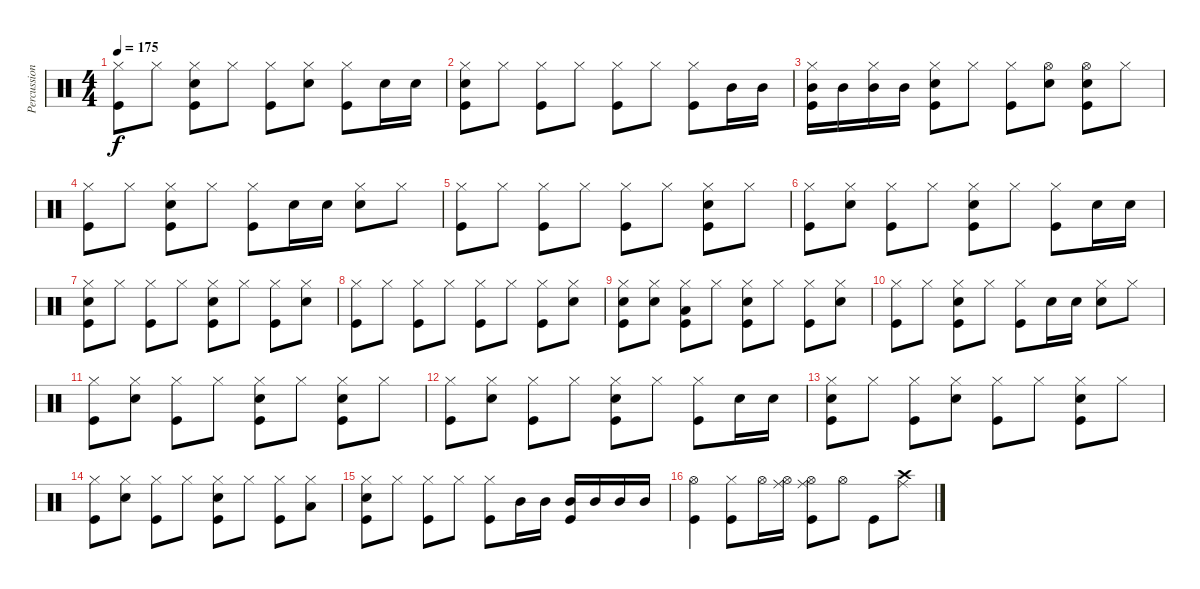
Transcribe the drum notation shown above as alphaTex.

\track ("Percussions" "Percussion") {instrument percussion}
\staff {score}
\articulation defaults
\ts (4 4)
\tempo 175
\clef neutral
\ks c
("Hi-Hat (closed)" "Kick (hit)").8{dy f} "Hi-Hat (closed)".8 ("Hi-Hat (closed)" "Snare (hit) 2" "Kick (hit)").8 "Hi-Hat (closed)".8 ("Hi-Hat (closed)" "Kick (hit)").8 ("Hi-Hat (closed)" "Snare (hit) 2").8 ("Hi-Hat (closed)" "Kick (hit)").8 "Snare (hit) 2".16 "Snare (hit) 2".16 |
("Hi-Hat (closed)" "Snare (hit) 2" "Kick (hit)").8 "Hi-Hat (closed)".8 ("Hi-Hat (closed)" "Kick (hit)").8 "Hi-Hat (closed)".8 ("Hi-Hat (closed)" "Kick (hit)").8 "Hi-Hat (closed)".8 ("Hi-Hat (closed)" "Kick (hit)").8 "Mid Tom (hit)".16 "Mid Tom (hit)".16 |
("Hi-Hat (closed)" "Mid Tom (hit)" "Kick (hit)").16 "Mid Tom (hit)".16 ("Hi-Hat (closed)" "Mid Tom (hit)").16 "Mid Tom (hit)".16 ("Hi-Hat (closed)" "Snare (hit) 2" "Kick (hit)").8 "Hi-Hat (closed)".8 ("Hi-Hat (closed)" "Kick (hit)").8 ("Hi-Hat (open)" "Snare (hit) 2").8 ("Hi-Hat (open)" "Snare (hit) 2" "Kick (hit)").8 "Hi-Hat (closed)".8 |
("Hi-Hat (closed)" "Kick (hit)").8 "Hi-Hat (closed)".8 ("Hi-Hat (closed)" "Snare (hit) 2" "Kick (hit)").8 "Hi-Hat (closed)".8 ("Hi-Hat (closed)" "Kick (hit)").8 "Snare (hit) 2".16 "Snare (hit) 2".16 ("Hi-Hat (closed)" "Snare (hit) 2").8 "Hi-Hat (closed)".8 |
("Hi-Hat (closed)" "Kick (hit)").8 "Hi-Hat (closed)".8 ("Hi-Hat (closed)" "Kick (hit)").8 "Hi-Hat (closed)".8 ("Hi-Hat (closed)" "Kick (hit)").8 "Hi-Hat (closed)".8 ("Hi-Hat (closed)" "Snare (hit) 2" "Kick (hit)").8 "Hi-Hat (closed)".8 |
("Hi-Hat (closed)" "Kick (hit)").8 ("Hi-Hat (closed)" "Snare (hit) 2").8 ("Hi-Hat (closed)" "Kick (hit)").8 "Hi-Hat (closed)".8 ("Hi-Hat (closed)" "Snare (hit) 2" "Kick (hit)").8 "Hi-Hat (closed)".8 ("Hi-Hat (closed)" "Kick (hit)").8 "Snare (hit) 2".16 "Snare (hit) 2".16 |
("Hi-Hat (closed)" "Snare (hit) 2" "Kick (hit)").8 "Hi-Hat (closed)".8 ("Hi-Hat (closed)" "Kick (hit)").8 "Hi-Hat (closed)".8 ("Hi-Hat (closed)" "Snare (hit) 2" "Kick (hit)").8 "Hi-Hat (closed)".8 ("Hi-Hat (closed)" "Kick (hit)").8 ("Hi-Hat (closed)" "Snare (hit) 2").8 |
("Hi-Hat (closed)" "Kick (hit)").8 "Hi-Hat (closed)".8 ("Hi-Hat (closed)" "Kick (hit)").8 "Hi-Hat (closed)".8 ("Hi-Hat (closed)" "Kick (hit)").8 "Hi-Hat (closed)".8 ("Hi-Hat (closed)" "Kick (hit)").8 ("Hi-Hat (closed)" "Snare (hit) 2").8 |
("Hi-Hat (closed)" "Snare (hit) 2" "Kick (hit)").8 ("Hi-Hat (closed)" "Snare (hit) 2").8 ("Hi-Hat (closed)" "Low Floor Tom (hit)" "Kick (hit)").8 "Hi-Hat (closed)".8 ("Hi-Hat (closed)" "Snare (hit) 2" "Kick (hit)").8 "Hi-Hat (closed)".8 ("Hi-Hat (closed)" "Kick (hit)").8 ("Hi-Hat (closed)" "Snare (hit) 2").8 |
("Hi-Hat (closed)" "Kick (hit)").8 "Hi-Hat (closed)".8 ("Hi-Hat (closed)" "Snare (hit) 2" "Kick (hit)").8 "Hi-Hat (closed)".8 ("Hi-Hat (closed)" "Kick (hit)").8 "Snare (hit) 2".16 "Snare (hit) 2".16 ("Hi-Hat (closed)" "Snare (hit) 2").8 "Hi-Hat (closed)".8 |
("Hi-Hat (closed)" "Kick (hit)").8 ("Hi-Hat (closed)" "Snare (hit) 2").8 ("Hi-Hat (closed)" "Kick (hit)").8 "Hi-Hat (closed)".8 ("Hi-Hat (closed)" "Snare (hit) 2" "Kick (hit)").8 "Hi-Hat (closed)".8 ("Hi-Hat (closed)" "Snare (hit) 2" "Kick (hit)").8 "Hi-Hat (closed)".8 |
("Hi-Hat (closed)" "Kick (hit)").8 ("Hi-Hat (closed)" "Snare (hit) 2").8 ("Hi-Hat (closed)" "Kick (hit)").8 "Hi-Hat (closed)".8 ("Hi-Hat (closed)" "Snare (hit) 2" "Kick (hit)").8 "Hi-Hat (closed)".8 ("Hi-Hat (closed)" "Kick (hit)").8 "Snare (hit) 2".16 "Snare (hit) 2".16 |
("Hi-Hat (closed)" "Snare (hit) 2" "Kick (hit)").8 "Hi-Hat (closed)".8 ("Hi-Hat (closed)" "Kick (hit)").8 ("Hi-Hat (closed)" "Snare (hit) 2").8 ("Hi-Hat (closed)" "Kick (hit)").8 "Hi-Hat (closed)".8 ("Hi-Hat (closed)" "Snare (hit) 2" "Kick (hit)").8 "Hi-Hat (closed)".8 |
("Hi-Hat (closed)" "Kick (hit)").8 ("Hi-Hat (closed)" "Snare (hit) 2").8 ("Hi-Hat (closed)" "Kick (hit)").8 "Hi-Hat (closed)".8 ("Hi-Hat (closed)" "Snare (hit) 2" "Kick (hit)").8 "Hi-Hat (closed)".8 ("Hi-Hat (closed)" "Kick (hit)").8 ("Hi-Hat (closed)" "Low Floor Tom (hit)").8 |
("Hi-Hat (closed)" "Snare (hit) 2" "Kick (hit)").8 "Hi-Hat (closed)".8 ("Hi-Hat (closed)" "Kick (hit)").8 "Hi-Hat (closed)".8 ("Hi-Hat (closed)" "Kick (hit)").8 "Mid Tom (hit)".16 "Mid Tom (hit)".16 ("Mid Tom (hit)" "Kick (hit)").16 "Mid Tom (hit)".16 "Mid Tom (hit)".16 "Mid Tom (hit)".16 |
("Hi-Hat (open)" "Kick (hit)").4 ("Hi-Hat (closed)" "Kick (hit)").8 "Hi-Hat (open)".16 ("Hi-Hat (open)" "Ride (middle)").16 ("Hi-Hat (open)" "Ride (middle)" "Kick (hit)").8 "Hi-Hat (open)".8 "Kick (hit)".8 ("Crash high (hit)" "Ride (middle)").8
